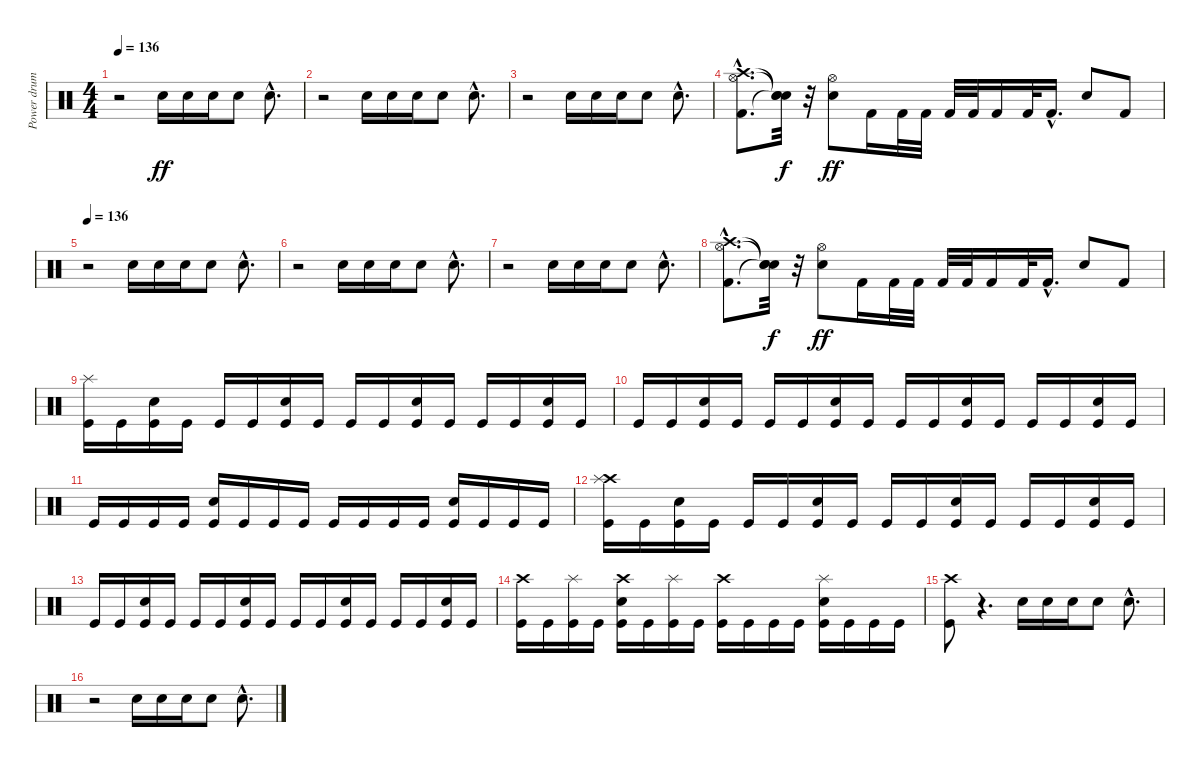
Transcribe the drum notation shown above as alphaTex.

\track ("Power drums" "Power drum") {instrument percussion}
\staff {score}
\articulation defaults
\ts (4 4)
\tempo 136
\clef neutral
\ks c
r.2{dy ff} "Snare (hit) 2".16 "Snare (hit) 2".16 "Snare (hit) 2".16 "Snare (hit) 2".8 "Snare (hit) 2"{hac}.8{d} |
r.2 "Snare (hit) 2".16 "Snare (hit) 2".16 "Snare (hit) 2".16 "Snare (hit) 2".8 "Snare (hit) 2"{hac}.8{d} |
r.2 "Snare (hit) 2".16 "Snare (hit) 2".16 "Snare (hit) 2".16 "Snare (hit) 2".8 "Snare (hit) 2"{hac}.8{d} |
("Kick (hit) 2"{hac} "Hi-Hat (open)"{hac} "Crash high (hit)"{hac}).8{d} ("Snare (hit)"{t} "Snare (hit)"{t} "Snare (hit)"{t}).32{dy f} r.32 ("Snare (hit) 2" "Hi-Hat (open)").8{dy ff} "Kick (hit) 2".16 "Kick (hit) 2".32 "Kick (hit) 2".32 "Kick (hit) 2".32 "Kick (hit) 2".32 "Kick (hit) 2".16 "Kick (hit) 2".32 "Kick (hit) 2"{hac}.16{d} "Snare (hit) 2".8 "Kick (hit) 2".8 |
\tempo 136
r.2 "Snare (hit) 2".16 "Snare (hit) 2".16 "Snare (hit) 2".16 "Snare (hit) 2".8 "Snare (hit) 2"{hac}.8{d} |
r.2 "Snare (hit) 2".16 "Snare (hit) 2".16 "Snare (hit) 2".16 "Snare (hit) 2".8 "Snare (hit) 2"{hac}.8{d} |
r.2 "Snare (hit) 2".16 "Snare (hit) 2".16 "Snare (hit) 2".16 "Snare (hit) 2".8 "Snare (hit) 2"{hac}.8{d} |
("Kick (hit) 2"{hac} "Hi-Hat (open)"{hac} "Crash high (hit)"{hac}).8{d} ("Snare (hit)"{t} "Snare (hit)"{t} "Snare (hit)"{t}).32{dy f} r.32 ("Snare (hit) 2" "Hi-Hat (open)").8{dy ff} "Kick (hit) 2".16 "Kick (hit) 2".32 "Kick (hit) 2".32 "Kick (hit) 2".32 "Kick (hit) 2".32 "Kick (hit) 2".16 "Kick (hit) 2".32 "Kick (hit) 2"{hac}.16{d} "Snare (hit) 2".8 "Kick (hit) 2".8 |
("Kick (hit)" "Splash (hit)").16 "Kick (hit)".16 ("Kick (hit)" "Snare (hit) 2").16 "Kick (hit)".16 "Kick (hit)".16 "Kick (hit)".16 ("Kick (hit)" "Snare (hit) 2").16 "Kick (hit)".16 "Kick (hit)".16 "Kick (hit)".16 ("Kick (hit)" "Snare (hit) 2").16 "Kick (hit)".16 "Kick (hit)".16 "Kick (hit)".16 ("Kick (hit)" "Snare (hit) 2").16 "Kick (hit)".16 |
"Kick (hit)".16 "Kick (hit)".16 ("Kick (hit)" "Snare (hit) 2").16 "Kick (hit)".16 "Kick (hit)".16 "Kick (hit)".16 ("Kick (hit)" "Snare (hit) 2").16 "Kick (hit)".16 "Kick (hit)".16 "Kick (hit)".16 ("Kick (hit)" "Snare (hit) 2").16 "Kick (hit)".16 "Kick (hit)".16 "Kick (hit)".16 ("Kick (hit)" "Snare (hit) 2").16 "Kick (hit)".16 |
"Kick (hit)".16 "Kick (hit)".16 "Kick (hit)".16 "Kick (hit)".16 ("Kick (hit)" "Snare (hit) 2").16 "Kick (hit)".16 "Kick (hit)".16 "Kick (hit)".16 "Kick (hit)".16 "Kick (hit)".16 "Kick (hit)".16 "Kick (hit)".16 ("Kick (hit)" "Snare (hit) 2").16 "Kick (hit)".16 "Kick (hit)".16 "Kick (hit)".16 |
("Kick (hit)" "Crash high (hit)" "Splash (hit)").16 "Kick (hit)".16 ("Kick (hit)" "Snare (hit) 2").16 "Kick (hit)".16 "Kick (hit)".16 "Kick (hit)".16 ("Kick (hit)" "Snare (hit) 2").16 "Kick (hit)".16 "Kick (hit)".16 "Kick (hit)".16 ("Kick (hit)" "Snare (hit) 2").16 "Kick (hit)".16 "Kick (hit)".16 "Kick (hit)".16 ("Kick (hit)" "Snare (hit) 2").16 "Kick (hit)".16 |
"Kick (hit)".16 "Kick (hit)".16 ("Kick (hit)" "Snare (hit) 2").16 "Kick (hit)".16 "Kick (hit)".16 "Kick (hit)".16 ("Kick (hit)" "Snare (hit) 2").16 "Kick (hit)".16 "Kick (hit)".16 "Kick (hit)".16 ("Kick (hit)" "Snare (hit) 2").16 "Kick (hit)".16 "Kick (hit)".16 "Kick (hit)".16 ("Kick (hit)" "Snare (hit) 2").16 "Kick (hit)".16 |
("Kick (hit)" "Crash high (hit)").16 "Kick (hit)".16 ("Kick (hit)" "Splash (hit)").16 "Kick (hit)".16 ("Kick (hit)" "Snare (hit) 2" "Crash high (hit)").16 "Kick (hit)".16 ("Kick (hit)" "Splash (hit)").16 "Kick (hit)".16 ("Kick (hit)" "Crash high (hit)").16 "Kick (hit)".16 "Kick (hit)".16 "Kick (hit)".16 ("Kick (hit)" "Snare (hit) 2" "Splash (hit)").16 "Kick (hit)".16 "Kick (hit)".16 "Kick (hit)".16 |
("Kick (hit)" "Crash high (hit)").8 r.4{d} "Snare (hit) 2".16 "Snare (hit) 2".16 "Snare (hit) 2".16 "Snare (hit) 2".8 "Snare (hit) 2"{hac}.8{d} |
r.2 "Snare (hit) 2".16 "Snare (hit) 2".16 "Snare (hit) 2".16 "Snare (hit) 2".8 "Snare (hit) 2"{hac}.8{d}
